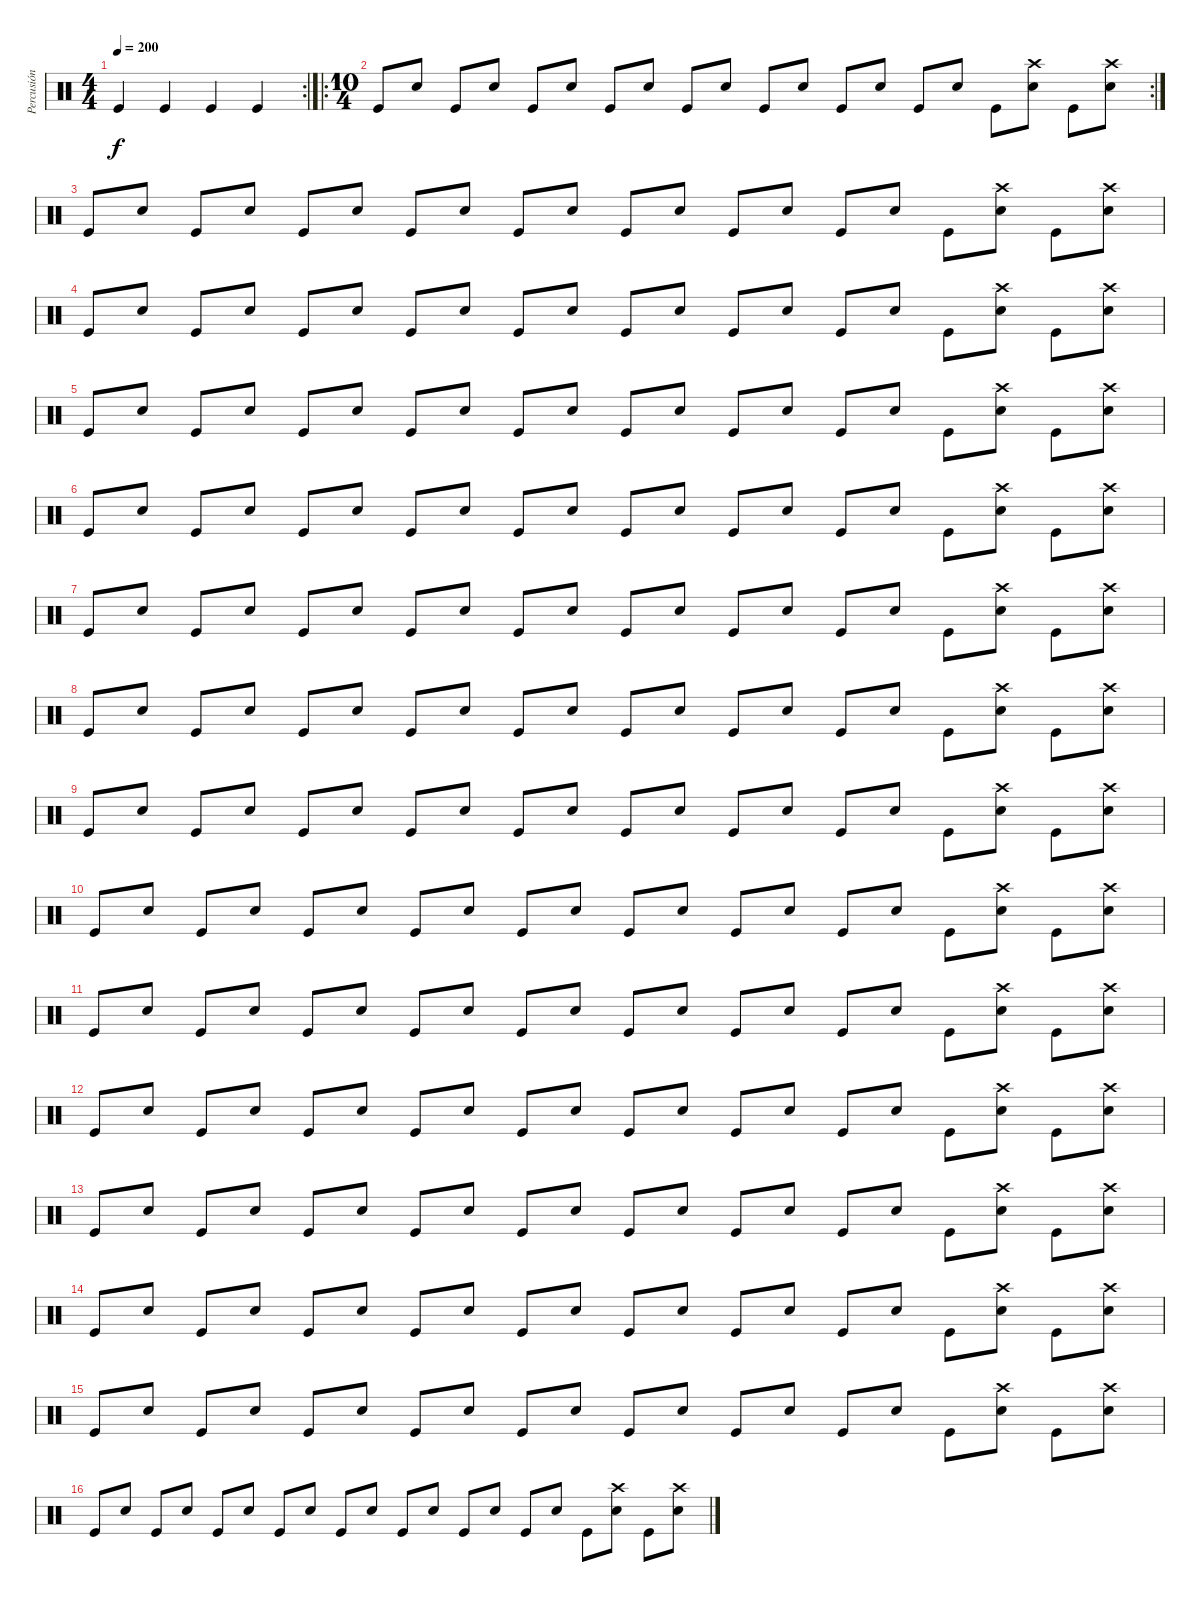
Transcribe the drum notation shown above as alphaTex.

\track ("Percusión" "Percusión") {instrument percussion}
\staff {score}
\articulation defaults
\rc 2
\ts (4 4)
\tempo 200
\clef neutral
\ks c "Kick (hit)".4{dy f} "Kick (hit)".4 "Kick (hit)".4 "Kick (hit)".4
|
\ro
\rc 2
\ts (10 4)
"Kick (hit)".8 "Snare (hit) 2".8 "Kick (hit)".8 "Snare (hit) 2".8 "Kick (hit)".8 "Snare (hit) 2".8 "Kick (hit)".8 "Snare (hit) 2".8 "Kick (hit)".8 "Snare (hit) 2".8 "Kick (hit)".8 "Snare (hit) 2".8 "Kick (hit)".8 "Snare (hit) 2".8 "Kick (hit)".8 "Snare (hit) 2".8 "Kick (hit)".8 ("Crash high (hit)" "Snare (hit) 2").8 "Kick (hit)".8 ("Crash high (hit)" "Snare (hit) 2").8 |
"Kick (hit)".8 "Snare (hit) 2".8 "Kick (hit)".8 "Snare (hit) 2".8 "Kick (hit)".8 "Snare (hit) 2".8 "Kick (hit)".8 "Snare (hit) 2".8 "Kick (hit)".8 "Snare (hit) 2".8 "Kick (hit)".8 "Snare (hit) 2".8 "Kick (hit)".8 "Snare (hit) 2".8 "Kick (hit)".8 "Snare (hit) 2".8 "Kick (hit)".8 ("Crash high (hit)" "Snare (hit) 2").8 "Kick (hit)".8 ("Crash high (hit)" "Snare (hit) 2").8 |
"Kick (hit)".8 "Snare (hit) 2".8 "Kick (hit)".8 "Snare (hit) 2".8 "Kick (hit)".8 "Snare (hit) 2".8 "Kick (hit)".8 "Snare (hit) 2".8 "Kick (hit)".8 "Snare (hit) 2".8 "Kick (hit)".8 "Snare (hit) 2".8 "Kick (hit)".8 "Snare (hit) 2".8 "Kick (hit)".8 "Snare (hit) 2".8 "Kick (hit)".8 ("Crash high (hit)" "Snare (hit) 2").8 "Kick (hit)".8 ("Crash high (hit)" "Snare (hit) 2").8 |
"Kick (hit)".8 "Snare (hit) 2".8 "Kick (hit)".8 "Snare (hit) 2".8 "Kick (hit)".8 "Snare (hit) 2".8 "Kick (hit)".8 "Snare (hit) 2".8 "Kick (hit)".8 "Snare (hit) 2".8 "Kick (hit)".8 "Snare (hit) 2".8 "Kick (hit)".8 "Snare (hit) 2".8 "Kick (hit)".8 "Snare (hit) 2".8 "Kick (hit)".8 ("Crash high (hit)" "Snare (hit) 2").8 "Kick (hit)".8 ("Crash high (hit)" "Snare (hit) 2").8 |
"Kick (hit)".8 "Snare (hit) 2".8 "Kick (hit)".8 "Snare (hit) 2".8 "Kick (hit)".8 "Snare (hit) 2".8 "Kick (hit)".8 "Snare (hit) 2".8 "Kick (hit)".8 "Snare (hit) 2".8 "Kick (hit)".8 "Snare (hit) 2".8 "Kick (hit)".8 "Snare (hit) 2".8 "Kick (hit)".8 "Snare (hit) 2".8 "Kick (hit)".8 ("Crash high (hit)" "Snare (hit) 2").8 "Kick (hit)".8 ("Crash high (hit)" "Snare (hit) 2").8 |
"Kick (hit)".8 "Snare (hit) 2".8 "Kick (hit)".8 "Snare (hit) 2".8 "Kick (hit)".8 "Snare (hit) 2".8 "Kick (hit)".8 "Snare (hit) 2".8 "Kick (hit)".8 "Snare (hit) 2".8 "Kick (hit)".8 "Snare (hit) 2".8 "Kick (hit)".8 "Snare (hit) 2".8 "Kick (hit)".8 "Snare (hit) 2".8 "Kick (hit)".8 ("Crash high (hit)" "Snare (hit) 2").8 "Kick (hit)".8 ("Crash high (hit)" "Snare (hit) 2").8 |
"Kick (hit)".8 "Snare (hit) 2".8 "Kick (hit)".8 "Snare (hit) 2".8 "Kick (hit)".8 "Snare (hit) 2".8 "Kick (hit)".8 "Snare (hit) 2".8 "Kick (hit)".8 "Snare (hit) 2".8 "Kick (hit)".8 "Snare (hit) 2".8 "Kick (hit)".8 "Snare (hit) 2".8 "Kick (hit)".8 "Snare (hit) 2".8 "Kick (hit)".8 ("Crash high (hit)" "Snare (hit) 2").8 "Kick (hit)".8 ("Crash high (hit)" "Snare (hit) 2").8 |
"Kick (hit)".8 "Snare (hit) 2".8 "Kick (hit)".8 "Snare (hit) 2".8 "Kick (hit)".8 "Snare (hit) 2".8 "Kick (hit)".8 "Snare (hit) 2".8 "Kick (hit)".8 "Snare (hit) 2".8 "Kick (hit)".8 "Snare (hit) 2".8 "Kick (hit)".8 "Snare (hit) 2".8 "Kick (hit)".8 "Snare (hit) 2".8 "Kick (hit)".8 ("Crash high (hit)" "Snare (hit) 2").8 "Kick (hit)".8 ("Crash high (hit)" "Snare (hit) 2").8 |
"Kick (hit)".8 "Snare (hit) 2".8 "Kick (hit)".8 "Snare (hit) 2".8 "Kick (hit)".8 "Snare (hit) 2".8 "Kick (hit)".8 "Snare (hit) 2".8 "Kick (hit)".8 "Snare (hit) 2".8 "Kick (hit)".8 "Snare (hit) 2".8 "Kick (hit)".8 "Snare (hit) 2".8 "Kick (hit)".8 "Snare (hit) 2".8 "Kick (hit)".8 ("Crash high (hit)" "Snare (hit) 2").8 "Kick (hit)".8 ("Crash high (hit)" "Snare (hit) 2").8 |
"Kick (hit)".8 "Snare (hit) 2".8 "Kick (hit)".8 "Snare (hit) 2".8 "Kick (hit)".8 "Snare (hit) 2".8 "Kick (hit)".8 "Snare (hit) 2".8 "Kick (hit)".8 "Snare (hit) 2".8 "Kick (hit)".8 "Snare (hit) 2".8 "Kick (hit)".8 "Snare (hit) 2".8 "Kick (hit)".8 "Snare (hit) 2".8 "Kick (hit)".8 ("Crash high (hit)" "Snare (hit) 2").8 "Kick (hit)".8 ("Crash high (hit)" "Snare (hit) 2").8 |
"Kick (hit)".8 "Snare (hit) 2".8 "Kick (hit)".8 "Snare (hit) 2".8 "Kick (hit)".8 "Snare (hit) 2".8 "Kick (hit)".8 "Snare (hit) 2".8 "Kick (hit)".8 "Snare (hit) 2".8 "Kick (hit)".8 "Snare (hit) 2".8 "Kick (hit)".8 "Snare (hit) 2".8 "Kick (hit)".8 "Snare (hit) 2".8 "Kick (hit)".8 ("Crash high (hit)" "Snare (hit) 2").8 "Kick (hit)".8 ("Crash high (hit)" "Snare (hit) 2").8 |
"Kick (hit)".8 "Snare (hit) 2".8 "Kick (hit)".8 "Snare (hit) 2".8 "Kick (hit)".8 "Snare (hit) 2".8 "Kick (hit)".8 "Snare (hit) 2".8 "Kick (hit)".8 "Snare (hit) 2".8 "Kick (hit)".8 "Snare (hit) 2".8 "Kick (hit)".8 "Snare (hit) 2".8 "Kick (hit)".8 "Snare (hit) 2".8 "Kick (hit)".8 ("Crash high (hit)" "Snare (hit) 2").8 "Kick (hit)".8 ("Crash high (hit)" "Snare (hit) 2").8 |
"Kick (hit)".8 "Snare (hit) 2".8 "Kick (hit)".8 "Snare (hit) 2".8 "Kick (hit)".8 "Snare (hit) 2".8 "Kick (hit)".8 "Snare (hit) 2".8 "Kick (hit)".8 "Snare (hit) 2".8 "Kick (hit)".8 "Snare (hit) 2".8 "Kick (hit)".8 "Snare (hit) 2".8 "Kick (hit)".8 "Snare (hit) 2".8 "Kick (hit)".8 ("Crash high (hit)" "Snare (hit) 2").8 "Kick (hit)".8 ("Crash high (hit)" "Snare (hit) 2").8 |
"Kick (hit)".8 "Snare (hit) 2".8 "Kick (hit)".8 "Snare (hit) 2".8 "Kick (hit)".8 "Snare (hit) 2".8 "Kick (hit)".8 "Snare (hit) 2".8 "Kick (hit)".8 "Snare (hit) 2".8 "Kick (hit)".8 "Snare (hit) 2".8 "Kick (hit)".8 "Snare (hit) 2".8 "Kick (hit)".8 "Snare (hit) 2".8 "Kick (hit)".8 ("Crash high (hit)" "Snare (hit) 2").8 "Kick (hit)".8 ("Crash high (hit)" "Snare (hit) 2").8 |
"Kick (hit)".8 "Snare (hit) 2".8 "Kick (hit)".8 "Snare (hit) 2".8 "Kick (hit)".8 "Snare (hit) 2".8 "Kick (hit)".8 "Snare (hit) 2".8 "Kick (hit)".8 "Snare (hit) 2".8 "Kick (hit)".8 "Snare (hit) 2".8 "Kick (hit)".8 "Snare (hit) 2".8 "Kick (hit)".8 "Snare (hit) 2".8 "Kick (hit)".8 ("Crash high (hit)" "Snare (hit) 2").8 "Kick (hit)".8 ("Crash high (hit)" "Snare (hit) 2").8
